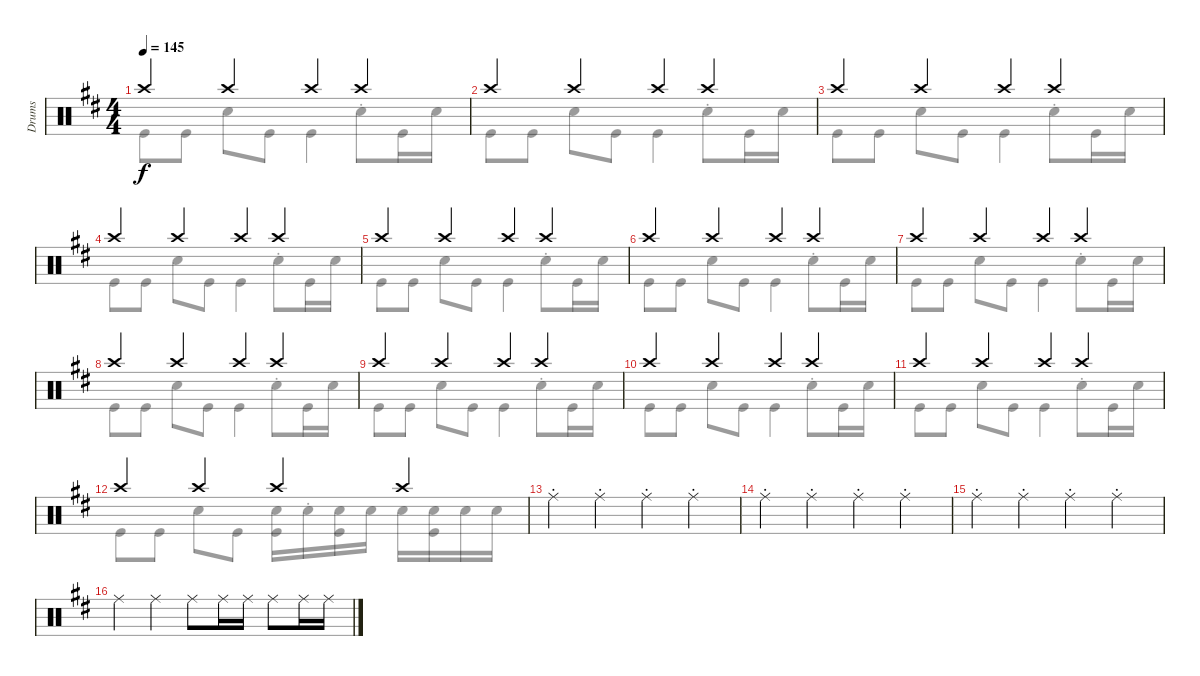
\track ("Drums" "Drums") {instrument percussion}
\staff {score}
\articulation defaults
\voice
\ts (4 4)
\tempo 145
\clef neutral
\ks d "Crash high (hit)".4{dy f} "Crash high (hit)".4 "Crash high (hit)".4 "Crash high (hit)".4
|
"Crash high (hit)".4 "Crash high (hit)".4 "Crash high (hit)".4 "Crash high (hit)".4 |
"Crash high (hit)".4 "Crash high (hit)".4 "Crash high (hit)".4 "Crash high (hit)".4 |
"Crash high (hit)".4 "Crash high (hit)".4 "Crash high (hit)".4 "Crash high (hit)".4 |
"Crash high (hit)".4 "Crash high (hit)".4 "Crash high (hit)".4 "Crash high (hit)".4 |
"Crash high (hit)".4 "Crash high (hit)".4 "Crash high (hit)".4 "Crash high (hit)".4 |
"Crash high (hit)".4 "Crash high (hit)".4 "Crash high (hit)".4 "Crash high (hit)".4 |
"Crash high (hit)".4 "Crash high (hit)".4 "Crash high (hit)".4 "Crash high (hit)".4 |
"Crash high (hit)".4 "Crash high (hit)".4 "Crash high (hit)".4 "Crash high (hit)".4 |
"Crash high (hit)".4 "Crash high (hit)".4 "Crash high (hit)".4 "Crash high (hit)".4 |
"Crash high (hit)".4 "Crash high (hit)".4 "Crash high (hit)".4 "Crash high (hit)".4 |
"Crash high (hit)".4 "Crash high (hit)".4 "Crash high (hit)".4 "Crash high (hit)".4 |
"Ride (middle)"{st}.4 "Ride (middle)"{st}.4 "Ride (middle)"{st}.4 "Ride (middle)"{st}.4 |
"Ride (middle)"{st}.4 "Ride (middle)"{st}.4 "Ride (middle)"{st}.4 "Ride (middle)"{st}.4 |
"Ride (middle)"{st}.4 "Ride (middle)"{st}.4 "Ride (middle)"{st}.4 "Ride (middle)"{st}.4 |
"Ride (middle)".4 "Ride (middle)".4 "Ride (middle)".8 "Ride (middle)".16 "Ride (middle)".16 "Ride (middle)".8 "Ride (middle)".16 "Ride (middle)".16
\voice
\clef neutral
\ottava regular
\simile none
\ks d "Kick (hit)".8{dy f} "Kick (hit)".8 "Electric Snare (hit)".8 "Kick (hit)".8 "Kick (hit)".4 "Electric Snare (hit)"{st}.8 "Kick (hit)".16 "Electric Snare (hit)".16
|
"Kick (hit)".8 "Kick (hit)".8 "Electric Snare (hit)".8 "Kick (hit)".8 "Kick (hit)".4 "Electric Snare (hit)"{st}.8 "Kick (hit)".16 "Electric Snare (hit)".16 |
"Kick (hit)".8 "Kick (hit)".8 "Electric Snare (hit)".8 "Kick (hit)".8 "Kick (hit)".4 "Electric Snare (hit)"{st}.8 "Kick (hit)".16 "Electric Snare (hit)".16 |
"Kick (hit)".8 "Kick (hit)".8 "Electric Snare (hit)".8 "Kick (hit)".8 "Kick (hit)".4 "Electric Snare (hit)"{st}.8 "Kick (hit)".16 "Electric Snare (hit)".16 |
"Kick (hit)".8 "Kick (hit)".8 "Electric Snare (hit)".8 "Kick (hit)".8 "Kick (hit)".4 "Electric Snare (hit)"{st}.8 "Kick (hit)".16 "Electric Snare (hit)".16 |
"Kick (hit)".8 "Kick (hit)".8 "Electric Snare (hit)".8 "Kick (hit)".8 "Kick (hit)".4 "Electric Snare (hit)"{st}.8 "Kick (hit)".16 "Electric Snare (hit)".16 |
"Kick (hit)".8 "Kick (hit)".8 "Electric Snare (hit)".8 "Kick (hit)".8 "Kick (hit)".4 "Electric Snare (hit)"{st}.8 "Kick (hit)".16 "Electric Snare (hit)".16 |
"Kick (hit)".8 "Kick (hit)".8 "Electric Snare (hit)".8 "Kick (hit)".8 "Kick (hit)".4 "Electric Snare (hit)"{st}.8 "Kick (hit)".16 "Electric Snare (hit)".16 |
"Kick (hit)".8 "Kick (hit)".8 "Electric Snare (hit)".8 "Kick (hit)".8 "Kick (hit)".4 "Electric Snare (hit)"{st}.8 "Kick (hit)".16 "Electric Snare (hit)".16 |
"Kick (hit)".8 "Kick (hit)".8 "Electric Snare (hit)".8 "Kick (hit)".8 "Kick (hit)".4 "Electric Snare (hit)"{st}.8 "Kick (hit)".16 "Electric Snare (hit)".16 |
"Kick (hit)".8 "Kick (hit)".8 "Electric Snare (hit)".8 "Kick (hit)".8 "Kick (hit)".4 "Electric Snare (hit)"{st}.8 "Kick (hit)".16 "Electric Snare (hit)".16 |
"Kick (hit)".8 "Kick (hit)".8 "Electric Snare (hit)".8 "Kick (hit)".8 ("Electric Snare (hit)" "Kick (hit)").16 "Electric Snare (hit)"{st}.16 ("Electric Snare (hit)" "Kick (hit)").16 "Electric Snare (hit)".16 "Electric Snare (hit)".16 ("Electric Snare (hit)" "Kick (hit)").16 "Electric Snare (hit)".16 "Electric Snare (hit)".16 |
|
|
|
